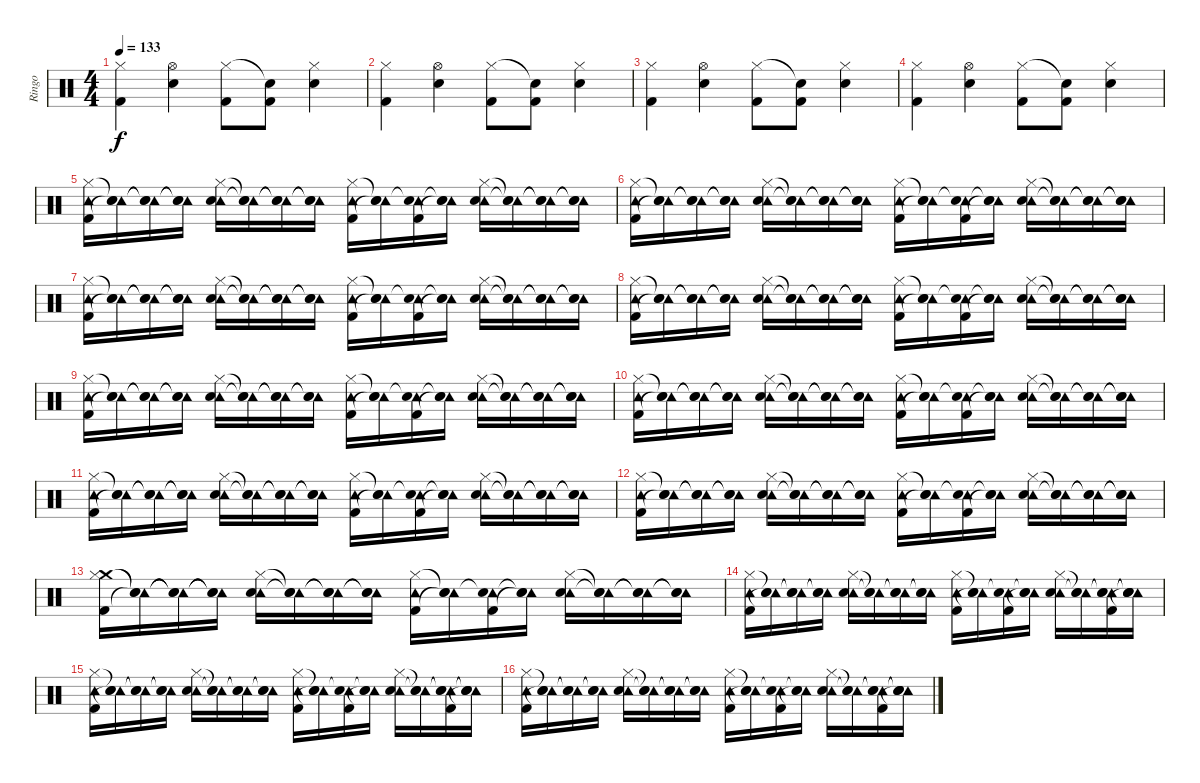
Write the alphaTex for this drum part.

\track ("Ringo" "Ringo") {instrument percussion}
\staff {score}
\articulation defaults
\ts (4 4)
\tempo 133
\clef neutral
\ks c
("Hi-Hat (closed)" "Kick (hit) 2").4{dy f} ("Hi-Hat (open)" "Snare (hit) 2").4 ("Hi-Hat (closed)" "Kick (hit) 2").8 ("Snare (hit)"{t} "Kick (hit) 2").8 ("Hi-Hat (closed)" "Snare (hit) 2").4 |
("Hi-Hat (closed)" "Kick (hit) 2").4 ("Hi-Hat (open)" "Snare (hit) 2").4 ("Hi-Hat (closed)" "Kick (hit) 2").8 ("Snare (hit)"{t} "Kick (hit) 2").8 ("Hi-Hat (closed)" "Snare (hit) 2").4 |
("Hi-Hat (closed)" "Kick (hit) 2").4 ("Hi-Hat (open)" "Snare (hit) 2").4 ("Hi-Hat (closed)" "Kick (hit) 2").8 ("Snare (hit)"{t} "Kick (hit) 2").8 ("Hi-Hat (closed)" "Snare (hit) 2").4 |
("Hi-Hat (closed)" "Kick (hit) 2").4 ("Hi-Hat (open)" "Snare (hit) 2").4 ("Hi-Hat (closed)" "Kick (hit) 2").8 ("Snare (hit)"{t} "Kick (hit) 2").8 ("Hi-Hat (closed)" "Snare (hit) 2").4 |
("Tambourine (hit)" "Hi-Hat (closed)" "Kick (hit) 2").16 ("Tambourine (hit)" "Snare (hit)"{t} "Snare (hit)"{t}).16 ("Tambourine (hit)" "Snare (hit)"{t} "Snare (hit)"{t}).16 ("Tambourine (hit)" "Snare (hit)"{t} "Snare (hit)"{t}).16 ("Tambourine (hit)" "Hi-Hat (closed)" "Snare (hit) 2").16 ("Tambourine (hit)" "Snare (hit)"{t} "Snare (hit)"{t}).16 ("Tambourine (hit)" "Snare (hit)"{t} "Snare (hit)"{t}).16 ("Tambourine (hit)" "Snare (hit)"{t} "Snare (hit)"{t}).16 ("Tambourine (hit)" "Hi-Hat (closed)" "Kick (hit) 2").16 ("Tambourine (hit)" "Snare (hit)"{t} "Snare (hit)"{t}).16 ("Tambourine (hit)" "Snare (hit)"{t} "Kick (hit) 2").16 ("Tambourine (hit)" "Snare (hit)"{t} "Snare (hit)"{t}).16 ("Tambourine (hit)" "Hi-Hat (closed)" "Snare (hit) 2").16 ("Tambourine (hit)" "Snare (hit)"{t} "Snare (hit)"{t}).16 ("Tambourine (hit)" "Snare (hit)"{t} "Snare (hit)"{t}).16 ("Tambourine (hit)" "Snare (hit)"{t} "Snare (hit)"{t}).16 |
("Tambourine (hit)" "Hi-Hat (closed)" "Kick (hit) 2").16 ("Tambourine (hit)" "Snare (hit)"{t} "Snare (hit)"{t}).16 ("Tambourine (hit)" "Snare (hit)"{t} "Snare (hit)"{t}).16 ("Tambourine (hit)" "Snare (hit)"{t} "Snare (hit)"{t}).16 ("Tambourine (hit)" "Hi-Hat (closed)" "Snare (hit) 2").16 ("Tambourine (hit)" "Snare (hit)"{t} "Snare (hit)"{t}).16 ("Tambourine (hit)" "Snare (hit)"{t} "Snare (hit)"{t}).16 ("Tambourine (hit)" "Snare (hit)"{t} "Snare (hit)"{t}).16 ("Tambourine (hit)" "Hi-Hat (closed)" "Kick (hit) 2").16 ("Tambourine (hit)" "Snare (hit)"{t} "Snare (hit)"{t}).16 ("Tambourine (hit)" "Snare (hit)"{t} "Kick (hit) 2").16 ("Tambourine (hit)" "Snare (hit)"{t} "Snare (hit)"{t}).16 ("Tambourine (hit)" "Hi-Hat (closed)" "Snare (hit) 2").16 ("Tambourine (hit)" "Snare (hit)"{t} "Snare (hit)"{t}).16 ("Tambourine (hit)" "Snare (hit)"{t} "Snare (hit)"{t}).16 ("Tambourine (hit)" "Snare (hit)"{t} "Snare (hit)"{t}).16 |
("Tambourine (hit)" "Hi-Hat (closed)" "Kick (hit) 2").16 ("Tambourine (hit)" "Snare (hit)"{t} "Snare (hit)"{t}).16 ("Tambourine (hit)" "Snare (hit)"{t} "Snare (hit)"{t}).16 ("Tambourine (hit)" "Snare (hit)"{t} "Snare (hit)"{t}).16 ("Tambourine (hit)" "Hi-Hat (closed)" "Snare (hit) 2").16 ("Tambourine (hit)" "Snare (hit)"{t} "Snare (hit)"{t}).16 ("Tambourine (hit)" "Snare (hit)"{t} "Snare (hit)"{t}).16 ("Tambourine (hit)" "Snare (hit)"{t} "Snare (hit)"{t}).16 ("Tambourine (hit)" "Hi-Hat (closed)" "Kick (hit) 2").16 ("Tambourine (hit)" "Snare (hit)"{t} "Snare (hit)"{t}).16 ("Tambourine (hit)" "Snare (hit)"{t} "Kick (hit) 2").16 ("Tambourine (hit)" "Snare (hit)"{t} "Snare (hit)"{t}).16 ("Tambourine (hit)" "Hi-Hat (closed)" "Snare (hit) 2").16 ("Tambourine (hit)" "Snare (hit)"{t} "Snare (hit)"{t}).16 ("Tambourine (hit)" "Snare (hit)"{t} "Snare (hit)"{t}).16 ("Tambourine (hit)" "Snare (hit)"{t} "Snare (hit)"{t}).16 |
("Tambourine (hit)" "Hi-Hat (closed)" "Kick (hit) 2").16 ("Tambourine (hit)" "Snare (hit)"{t} "Snare (hit)"{t}).16 ("Tambourine (hit)" "Snare (hit)"{t} "Snare (hit)"{t}).16 ("Tambourine (hit)" "Snare (hit)"{t} "Snare (hit)"{t}).16 ("Tambourine (hit)" "Hi-Hat (closed)" "Snare (hit) 2").16 ("Tambourine (hit)" "Snare (hit)"{t} "Snare (hit)"{t}).16 ("Tambourine (hit)" "Snare (hit)"{t} "Snare (hit)"{t}).16 ("Tambourine (hit)" "Snare (hit)"{t} "Snare (hit)"{t}).16 ("Tambourine (hit)" "Hi-Hat (closed)" "Kick (hit) 2").16 ("Tambourine (hit)" "Snare (hit)"{t} "Snare (hit)"{t}).16 ("Tambourine (hit)" "Snare (hit)"{t} "Kick (hit) 2").16 ("Tambourine (hit)" "Snare (hit)"{t} "Snare (hit)"{t}).16 ("Tambourine (hit)" "Hi-Hat (closed)" "Snare (hit) 2").16 ("Tambourine (hit)" "Snare (hit)"{t} "Snare (hit)"{t}).16 ("Tambourine (hit)" "Snare (hit)"{t} "Snare (hit)"{t}).16 ("Tambourine (hit)" "Snare (hit)"{t} "Snare (hit)"{t}).16 |
("Tambourine (hit)" "Hi-Hat (closed)" "Kick (hit) 2").16 ("Tambourine (hit)" "Snare (hit)"{t} "Snare (hit)"{t}).16 ("Tambourine (hit)" "Snare (hit)"{t} "Snare (hit)"{t}).16 ("Tambourine (hit)" "Snare (hit)"{t} "Snare (hit)"{t}).16 ("Tambourine (hit)" "Hi-Hat (closed)" "Snare (hit) 2").16 ("Tambourine (hit)" "Snare (hit)"{t} "Snare (hit)"{t}).16 ("Tambourine (hit)" "Snare (hit)"{t} "Snare (hit)"{t}).16 ("Tambourine (hit)" "Snare (hit)"{t} "Snare (hit)"{t}).16 ("Tambourine (hit)" "Hi-Hat (closed)" "Kick (hit) 2").16 ("Tambourine (hit)" "Snare (hit)"{t} "Snare (hit)"{t}).16 ("Tambourine (hit)" "Snare (hit)"{t} "Kick (hit) 2").16 ("Tambourine (hit)" "Snare (hit)"{t} "Snare (hit)"{t}).16 ("Tambourine (hit)" "Hi-Hat (closed)" "Snare (hit) 2").16 ("Tambourine (hit)" "Snare (hit)"{t} "Snare (hit)"{t}).16 ("Tambourine (hit)" "Snare (hit)"{t} "Snare (hit)"{t}).16 ("Tambourine (hit)" "Snare (hit)"{t} "Snare (hit)"{t}).16 |
("Tambourine (hit)" "Hi-Hat (closed)" "Kick (hit) 2").16 ("Tambourine (hit)" "Snare (hit)"{t} "Snare (hit)"{t}).16 ("Tambourine (hit)" "Snare (hit)"{t} "Snare (hit)"{t}).16 ("Tambourine (hit)" "Snare (hit)"{t} "Snare (hit)"{t}).16 ("Tambourine (hit)" "Hi-Hat (closed)" "Snare (hit) 2").16 ("Tambourine (hit)" "Snare (hit)"{t} "Snare (hit)"{t}).16 ("Tambourine (hit)" "Snare (hit)"{t} "Snare (hit)"{t}).16 ("Tambourine (hit)" "Snare (hit)"{t} "Snare (hit)"{t}).16 ("Tambourine (hit)" "Hi-Hat (closed)" "Kick (hit) 2").16 ("Tambourine (hit)" "Snare (hit)"{t} "Snare (hit)"{t}).16 ("Tambourine (hit)" "Snare (hit)"{t} "Kick (hit) 2").16 ("Tambourine (hit)" "Snare (hit)"{t} "Snare (hit)"{t}).16 ("Tambourine (hit)" "Hi-Hat (closed)" "Snare (hit) 2").16 ("Tambourine (hit)" "Snare (hit)"{t} "Snare (hit)"{t}).16 ("Tambourine (hit)" "Snare (hit)"{t} "Snare (hit)"{t}).16 ("Tambourine (hit)" "Snare (hit)"{t} "Snare (hit)"{t}).16 |
("Tambourine (hit)" "Hi-Hat (closed)" "Kick (hit) 2").16 ("Tambourine (hit)" "Snare (hit)"{t} "Snare (hit)"{t}).16 ("Tambourine (hit)" "Snare (hit)"{t} "Snare (hit)"{t}).16 ("Tambourine (hit)" "Snare (hit)"{t} "Snare (hit)"{t}).16 ("Tambourine (hit)" "Hi-Hat (closed)" "Snare (hit) 2").16 ("Tambourine (hit)" "Snare (hit)"{t} "Snare (hit)"{t}).16 ("Tambourine (hit)" "Snare (hit)"{t} "Snare (hit)"{t}).16 ("Tambourine (hit)" "Snare (hit)"{t} "Snare (hit)"{t}).16 ("Tambourine (hit)" "Hi-Hat (closed)" "Kick (hit) 2").16 ("Tambourine (hit)" "Snare (hit)"{t} "Snare (hit)"{t}).16 ("Tambourine (hit)" "Snare (hit)"{t} "Kick (hit) 2").16 ("Tambourine (hit)" "Snare (hit)"{t} "Snare (hit)"{t}).16 ("Tambourine (hit)" "Hi-Hat (closed)" "Snare (hit) 2").16 ("Tambourine (hit)" "Snare (hit)"{t} "Snare (hit)"{t}).16 ("Tambourine (hit)" "Snare (hit)"{t} "Snare (hit)"{t}).16 ("Tambourine (hit)" "Snare (hit)"{t} "Snare (hit)"{t}).16 |
("Tambourine (hit)" "Hi-Hat (closed)" "Kick (hit) 2").16 ("Tambourine (hit)" "Snare (hit)"{t} "Snare (hit)"{t}).16 ("Tambourine (hit)" "Snare (hit)"{t} "Snare (hit)"{t}).16 ("Tambourine (hit)" "Snare (hit)"{t} "Snare (hit)"{t}).16 ("Tambourine (hit)" "Hi-Hat (closed)" "Snare (hit) 2").16 ("Tambourine (hit)" "Snare (hit)"{t} "Snare (hit)"{t}).16 ("Tambourine (hit)" "Snare (hit)"{t} "Snare (hit)"{t}).16 ("Tambourine (hit)" "Snare (hit)"{t} "Snare (hit)"{t}).16 ("Tambourine (hit)" "Hi-Hat (closed)" "Kick (hit) 2").16 ("Tambourine (hit)" "Snare (hit)"{t} "Snare (hit)"{t}).16 ("Tambourine (hit)" "Snare (hit)"{t} "Kick (hit) 2").16 ("Tambourine (hit)" "Snare (hit)"{t} "Snare (hit)"{t}).16 ("Tambourine (hit)" "Hi-Hat (closed)" "Snare (hit) 2").16 ("Tambourine (hit)" "Snare (hit)"{t} "Snare (hit)"{t}).16 ("Tambourine (hit)" "Snare (hit)"{t} "Snare (hit)"{t}).16 ("Tambourine (hit)" "Snare (hit)"{t} "Snare (hit)"{t}).16 |
("Crash medium (hit)" "Hi-Hat (closed)" "Kick (hit) 2").16 ("Tambourine (hit)"{t} "Snare (hit)"{t} "Snare (hit)"{t}).16 ("Tambourine (hit)"{t} "Snare (hit)"{t} "Snare (hit)"{t}).16 ("Tambourine (hit)"{t} "Snare (hit)"{t} "Snare (hit)"{t}).16 ("Tambourine (hit)" "Hi-Hat (closed)" "Snare (hit) 2").16 ("Tambourine (hit)" "Snare (hit)"{t} "Snare (hit)"{t}).16 ("Tambourine (hit)" "Snare (hit)"{t} "Snare (hit)"{t}).16 ("Tambourine (hit)" "Snare (hit)"{t} "Snare (hit)"{t}).16 ("Tambourine (hit)" "Hi-Hat (closed)" "Kick (hit) 2").16 ("Tambourine (hit)" "Snare (hit)"{t} "Snare (hit)"{t}).16 ("Tambourine (hit)" "Snare (hit)"{t} "Kick (hit) 2").16 ("Tambourine (hit)" "Snare (hit)"{t} "Snare (hit)"{t}).16 ("Tambourine (hit)" "Hi-Hat (closed)" "Snare (hit) 2").16 ("Tambourine (hit)" "Snare (hit)"{t} "Snare (hit)"{t}).16 ("Tambourine (hit)" "Snare (hit)"{t} "Snare (hit)"{t}).16 ("Tambourine (hit)" "Snare (hit)"{t} "Snare (hit)"{t}).16 |
("Tambourine (hit)" "Hi-Hat (closed)" "Kick (hit) 2").16 ("Tambourine (hit)" "Snare (hit)"{t} "Snare (hit)"{t}).16 ("Tambourine (hit)" "Snare (hit)"{t} "Snare (hit)"{t}).16 ("Tambourine (hit)" "Snare (hit)"{t} "Snare (hit)"{t}).16 ("Tambourine (hit)" "Hi-Hat (closed)" "Snare (hit) 2").16 ("Tambourine (hit)" "Snare (hit)"{t} "Snare (hit)"{t}).16 ("Tambourine (hit)" "Snare (hit)"{t} "Snare (hit)"{t}).16 ("Tambourine (hit)" "Snare (hit)"{t} "Snare (hit)"{t}).16 ("Tambourine (hit)" "Hi-Hat (closed)" "Kick (hit) 2").16 ("Tambourine (hit)" "Snare (hit)"{t} "Snare (hit)"{t}).16 ("Tambourine (hit)" "Snare (hit)"{t} "Kick (hit) 2").16 ("Tambourine (hit)" "Snare (hit)"{t} "Snare (hit)"{t}).16 ("Tambourine (hit)" "Hi-Hat (closed)" "Snare (hit) 2").16 ("Tambourine (hit)" "Snare (hit)"{t} "Snare (hit)"{t}).16 ("Tambourine (hit)" "Snare (hit)"{t} "Snare (hit)"{t} "Kick (hit) 2").16 ("Tambourine (hit)" "Snare (hit)"{t} "Snare (hit)"{t} "Snare (hit)"{t}).16 |
("Tambourine (hit)" "Hi-Hat (closed)" "Kick (hit) 2").16 ("Tambourine (hit)" "Snare (hit)"{t} "Snare (hit)"{t}).16 ("Tambourine (hit)" "Snare (hit)"{t} "Snare (hit)"{t}).16 ("Tambourine (hit)" "Snare (hit)"{t} "Snare (hit)"{t}).16 ("Tambourine (hit)" "Hi-Hat (closed)" "Snare (hit) 2").16 ("Tambourine (hit)" "Snare (hit)"{t} "Snare (hit)"{t}).16 ("Tambourine (hit)" "Snare (hit)"{t} "Snare (hit)"{t}).16 ("Tambourine (hit)" "Snare (hit)"{t} "Snare (hit)"{t}).16 ("Tambourine (hit)" "Hi-Hat (closed)" "Kick (hit) 2").16 ("Tambourine (hit)" "Snare (hit)"{t} "Snare (hit)"{t}).16 ("Tambourine (hit)" "Snare (hit)"{t} "Kick (hit) 2").16 ("Tambourine (hit)" "Snare (hit)"{t} "Snare (hit)"{t}).16 ("Tambourine (hit)" "Hi-Hat (closed)" "Snare (hit) 2").16 ("Tambourine (hit)" "Snare (hit)"{t} "Snare (hit)"{t}).16 ("Tambourine (hit)" "Snare (hit)"{t} "Snare (hit)"{t} "Kick (hit) 2").16 ("Tambourine (hit)" "Snare (hit)"{t} "Snare (hit)"{t} "Snare (hit)"{t}).16 |
("Tambourine (hit)" "Hi-Hat (closed)" "Kick (hit) 2").16 ("Tambourine (hit)" "Snare (hit)"{t} "Snare (hit)"{t}).16 ("Tambourine (hit)" "Snare (hit)"{t} "Snare (hit)"{t}).16 ("Tambourine (hit)" "Snare (hit)"{t} "Snare (hit)"{t}).16 ("Tambourine (hit)" "Hi-Hat (closed)" "Snare (hit) 2").16 ("Tambourine (hit)" "Snare (hit)"{t} "Snare (hit)"{t}).16 ("Tambourine (hit)" "Snare (hit)"{t} "Snare (hit)"{t}).16 ("Tambourine (hit)" "Snare (hit)"{t} "Snare (hit)"{t}).16 ("Tambourine (hit)" "Hi-Hat (closed)" "Kick (hit) 2").16 ("Tambourine (hit)" "Snare (hit)"{t} "Snare (hit)"{t}).16 ("Tambourine (hit)" "Snare (hit)"{t} "Kick (hit) 2").16 ("Tambourine (hit)" "Snare (hit)"{t} "Snare (hit)"{t}).16 ("Tambourine (hit)" "Hi-Hat (closed)" "Snare (hit) 2").16 ("Tambourine (hit)" "Snare (hit)"{t} "Snare (hit)"{t}).16 ("Tambourine (hit)" "Snare (hit)"{t} "Snare (hit)"{t} "Kick (hit) 2").16 ("Tambourine (hit)" "Snare (hit)"{t} "Snare (hit)"{t} "Snare (hit)"{t}).16
